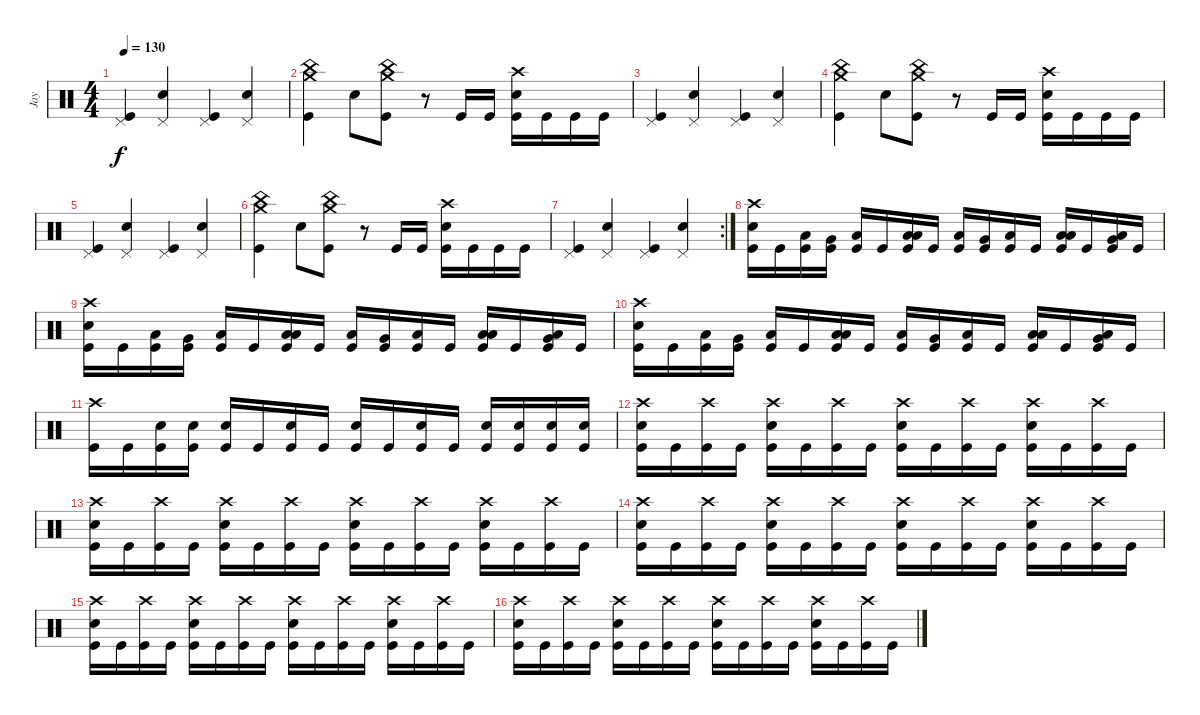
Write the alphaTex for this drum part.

\track ("Jay" "Jay") {instrument percussion}
\staff {score}
\articulation defaults
\ts (4 4)
\tempo 130
\clef neutral
\ks c
("Pedal Hi-Hat (hit)" "Kick (hit)").4{dy f} ("Pedal Hi-Hat (hit)" "Snare (hit) 2").4 ("Pedal Hi-Hat (hit)" "Kick (hit)").4 ("Pedal Hi-Hat (hit)" "Snare (hit) 2").4 |
("Crash medium (hit)" "China (hit)" "Kick (hit)").4 "Snare (hit) 2".8 ("China (hit)" "Crash medium (hit)" "Kick (hit)").8 r.8 "Kick (hit)".16 "Kick (hit)".16 ("Crash high (hit)" "Snare (hit) 2" "Kick (hit)").16 "Kick (hit)".16 "Kick (hit)".16 "Kick (hit)".16 |
("Pedal Hi-Hat (hit)" "Kick (hit)").4 ("Pedal Hi-Hat (hit)" "Snare (hit) 2").4 ("Pedal Hi-Hat (hit)" "Kick (hit)").4 ("Pedal Hi-Hat (hit)" "Snare (hit) 2").4 |
("Crash medium (hit)" "China (hit)" "Kick (hit)").4 "Snare (hit) 2".8 ("China (hit)" "Crash medium (hit)" "Kick (hit)").8 r.8 "Kick (hit)".16 "Kick (hit)".16 ("Crash high (hit)" "Snare (hit) 2" "Kick (hit)").16 "Kick (hit)".16 "Kick (hit)".16 "Kick (hit)".16 |
("Pedal Hi-Hat (hit)" "Kick (hit)").4 ("Pedal Hi-Hat (hit)" "Snare (hit) 2").4 ("Pedal Hi-Hat (hit)" "Kick (hit)").4 ("Pedal Hi-Hat (hit)" "Snare (hit) 2").4 |
("Crash medium (hit)" "China (hit)" "Kick (hit)").4 "Snare (hit) 2".8 ("China (hit)" "Crash medium (hit)" "Kick (hit)").8 r.8 "Kick (hit)".16 "Kick (hit)".16 ("Crash high (hit)" "Snare (hit) 2" "Kick (hit)").16 "Kick (hit)".16 "Kick (hit)".16 "Kick (hit)".16 |
\rc 2
("Pedal Hi-Hat (hit)" "Kick (hit)").4 ("Pedal Hi-Hat (hit)" "Snare (hit) 2").4 ("Pedal Hi-Hat (hit)" "Kick (hit)").4 ("Pedal Hi-Hat (hit)" "Snare (hit) 2").4 |
("Crash high (hit)" "Snare (hit) 2" "Kick (hit)").16 "Kick (hit)".16 ("Low Floor Tom (hit)" "Kick (hit)").16 ("Very Low Tom (hit)" "Kick (hit)").16 ("Low Floor Tom (hit)" "Kick (hit)").16 "Kick (hit)".16 ("Low Tom (hit)" "Low Floor Tom (hit)" "Kick (hit)").16 "Kick (hit)".16 ("Low Floor Tom (hit)" "Kick (hit)").16 ("Very Low Tom (hit)" "Kick (hit)").16 ("Low Floor Tom (hit)" "Kick (hit)").16 "Kick (hit)".16 ("Low Tom (hit)" "Low Floor Tom (hit)" "Kick (hit)").16 "Kick (hit)".16 ("Very Low Tom (hit)" "Low Floor Tom (hit)" "Kick (hit)").16 "Kick (hit)".16 |
("Crash high (hit)" "Snare (hit) 2" "Kick (hit)").16 "Kick (hit)".16 ("Low Floor Tom (hit)" "Kick (hit)").16 ("Very Low Tom (hit)" "Kick (hit)").16 ("Low Floor Tom (hit)" "Kick (hit)").16 "Kick (hit)".16 ("Low Tom (hit)" "Low Floor Tom (hit)" "Kick (hit)").16 "Kick (hit)".16 ("Low Floor Tom (hit)" "Kick (hit)").16 ("Very Low Tom (hit)" "Kick (hit)").16 ("Low Floor Tom (hit)" "Kick (hit)").16 "Kick (hit)".16 ("Low Tom (hit)" "Low Floor Tom (hit)" "Kick (hit)").16 "Kick (hit)".16 ("Very Low Tom (hit)" "Low Floor Tom (hit)" "Kick (hit)").16 "Kick (hit)".16 |
("Crash high (hit)" "Snare (hit) 2" "Kick (hit)").16 "Kick (hit)".16 ("Low Floor Tom (hit)" "Kick (hit)").16 ("Very Low Tom (hit)" "Kick (hit)").16 ("Low Floor Tom (hit)" "Kick (hit)").16 "Kick (hit)".16 ("Low Tom (hit)" "Low Floor Tom (hit)" "Kick (hit)").16 "Kick (hit)".16 ("Low Floor Tom (hit)" "Kick (hit)").16 ("Very Low Tom (hit)" "Kick (hit)").16 ("Low Floor Tom (hit)" "Kick (hit)").16 "Kick (hit)".16 ("Low Tom (hit)" "Low Floor Tom (hit)" "Kick (hit)").16 "Kick (hit)".16 ("Very Low Tom (hit)" "Low Floor Tom (hit)" "Kick (hit)").16 "Kick (hit)".16 |
("Crash high (hit)" "Kick (hit)").16 "Kick (hit)".16 ("Snare (hit) 2" "Kick (hit)").16 ("Snare (hit) 2" "Kick (hit)").16 ("Snare (hit) 2" "Kick (hit)").16 "Kick (hit)".16 ("Snare (hit) 2" "Kick (hit)").16 "Kick (hit)".16 ("Snare (hit) 2" "Kick (hit)").16 "Kick (hit)".16 ("Snare (hit) 2" "Kick (hit)").16 "Kick (hit)".16 ("Snare (hit) 2" "Kick (hit)").16 ("Snare (hit) 2" "Kick (hit)").16 ("Snare (hit) 2" "Kick (hit)").16 ("Snare (hit) 2" "Kick (hit)").16 |
("Crash high (hit)" "Snare (hit) 2" "Kick (hit)").16 "Kick (hit)".16 ("Crash high (hit)" "Kick (hit)").16 "Kick (hit)".16 ("Crash high (hit)" "Snare (hit) 2" "Kick (hit)").16 "Kick (hit)".16 ("Crash high (hit)" "Kick (hit)").16 "Kick (hit)".16 ("Crash high (hit)" "Snare (hit) 2" "Kick (hit)").16 "Kick (hit)".16 ("Crash high (hit)" "Kick (hit)").16 "Kick (hit)".16 ("Crash high (hit)" "Snare (hit) 2" "Kick (hit)").16 "Kick (hit)".16 ("Crash high (hit)" "Kick (hit)").16 "Kick (hit)".16 |
("Crash high (hit)" "Snare (hit) 2" "Kick (hit)").16 "Kick (hit)".16 ("Crash high (hit)" "Kick (hit)").16 "Kick (hit)".16 ("Crash high (hit)" "Snare (hit) 2" "Kick (hit)").16 "Kick (hit)".16 ("Crash high (hit)" "Kick (hit)").16 "Kick (hit)".16 ("Crash high (hit)" "Snare (hit) 2" "Kick (hit)").16 "Kick (hit)".16 ("Crash high (hit)" "Kick (hit)").16 "Kick (hit)".16 ("Crash high (hit)" "Snare (hit) 2" "Kick (hit)").16 "Kick (hit)".16 ("Crash high (hit)" "Kick (hit)").16 "Kick (hit)".16 |
("Crash high (hit)" "Snare (hit) 2" "Kick (hit)").16 "Kick (hit)".16 ("Crash high (hit)" "Kick (hit)").16 "Kick (hit)".16 ("Crash high (hit)" "Snare (hit) 2" "Kick (hit)").16 "Kick (hit)".16 ("Crash high (hit)" "Kick (hit)").16 "Kick (hit)".16 ("Crash high (hit)" "Snare (hit) 2" "Kick (hit)").16 "Kick (hit)".16 ("Crash high (hit)" "Kick (hit)").16 "Kick (hit)".16 ("Crash high (hit)" "Snare (hit) 2" "Kick (hit)").16 "Kick (hit)".16 ("Crash high (hit)" "Kick (hit)").16 "Kick (hit)".16 |
("Crash high (hit)" "Snare (hit) 2" "Kick (hit)").16 "Kick (hit)".16 ("Crash high (hit)" "Kick (hit)").16 "Kick (hit)".16 ("Crash high (hit)" "Snare (hit) 2" "Kick (hit)").16 "Kick (hit)".16 ("Crash high (hit)" "Kick (hit)").16 "Kick (hit)".16 ("Crash high (hit)" "Snare (hit) 2" "Kick (hit)").16 "Kick (hit)".16 ("Crash high (hit)" "Kick (hit)").16 "Kick (hit)".16 ("Crash high (hit)" "Snare (hit) 2" "Kick (hit)").16 "Kick (hit)".16 ("Crash high (hit)" "Kick (hit)").16 "Kick (hit)".16 |
("Crash high (hit)" "Snare (hit) 2" "Kick (hit)").16 "Kick (hit)".16 ("Crash high (hit)" "Kick (hit)").16 "Kick (hit)".16 ("Crash high (hit)" "Snare (hit) 2" "Kick (hit)").16 "Kick (hit)".16 ("Crash high (hit)" "Kick (hit)").16 "Kick (hit)".16 ("Crash high (hit)" "Snare (hit) 2" "Kick (hit)").16 "Kick (hit)".16 ("Crash high (hit)" "Kick (hit)").16 "Kick (hit)".16 ("Crash high (hit)" "Snare (hit) 2" "Kick (hit)").16 "Kick (hit)".16 ("Crash high (hit)" "Kick (hit)").16 "Kick (hit)".16
